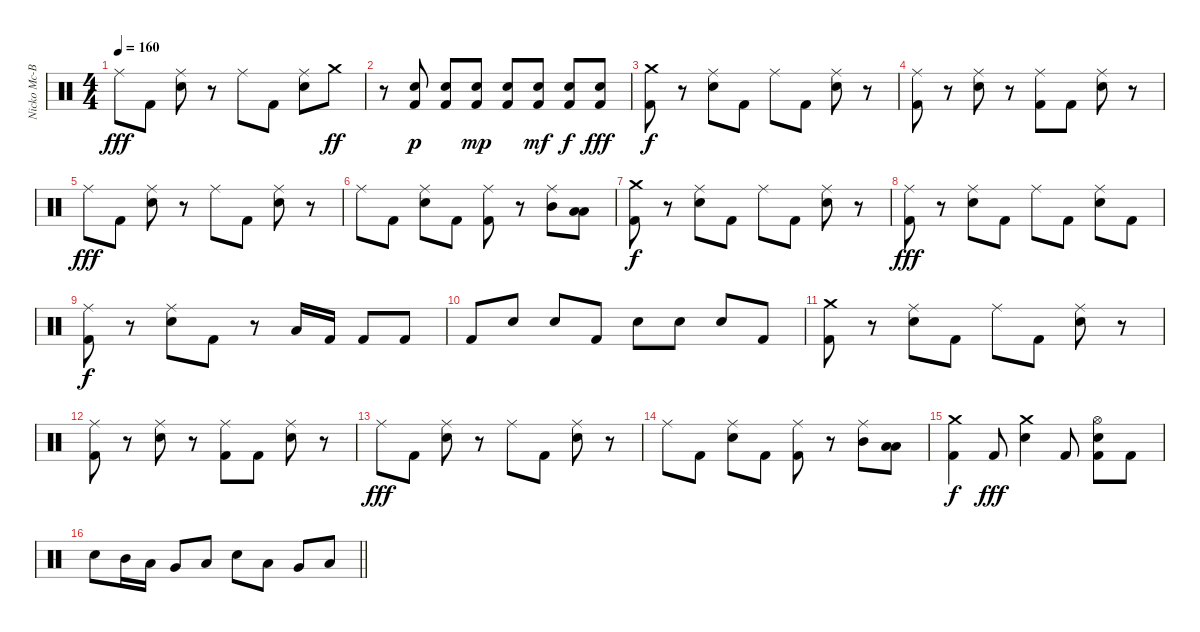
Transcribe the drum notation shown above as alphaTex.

\track ("Nicko Mc-Brain" "Nicko Mc-B") {instrument percussion}
\staff {score}
\articulation defaults
\ts (4 4)
\tempo 160
\clef neutral
\ks c "Ride (middle)".8{dy fff} "Kick (hit) 2".8
("Ride (middle)" "Snare (hit) 2").8 r.8 "Ride (middle)".8 "Kick (hit) 2".8 ("Ride (middle)" "Snare (hit) 2").8 "Crash medium (hit)".8{dy ff} |
r.8 ("Snare (hit) 2" "Kick (hit) 2").8{dy p} ("Snare (hit) 2" "Kick (hit) 2").8 ("Snare (hit) 2" "Kick (hit) 2").8{dy mp} ("Snare (hit) 2" "Kick (hit) 2").8 ("Snare (hit) 2" "Kick (hit) 2").8{dy mf} ("Snare (hit) 2" "Kick (hit) 2").8{dy f} ("Snare (hit) 2" "Kick (hit) 2").8{dy fff} |
("Crash medium (hit)" "Kick (hit) 2").8{dy f} r.8 ("Ride (middle)" "Snare (hit) 2").8 "Kick (hit) 2".8 "Ride (middle)".8 "Kick (hit) 2".8 ("Ride (middle)" "Snare (hit) 2").8 r.8 |
("Ride (middle)" "Kick (hit) 2").8 r.8 ("Ride (middle)" "Snare (hit) 2").8 r.8 ("Ride (middle)" "Kick (hit) 2").8 "Kick (hit) 2".8 ("Ride (middle)" "Snare (hit) 2").8 r.8 |
"Ride (middle)".8{dy fff} "Kick (hit) 2".8 ("Ride (middle)" "Snare (hit) 2").8 r.8 "Ride (middle)".8 "Kick (hit) 2".8 ("Ride (middle)" "Snare (hit) 2").8 r.8 |
"Ride (middle)".8 "Kick (hit) 2".8 ("Ride (middle)" "Snare (hit) 2").8 "Kick (hit) 2".8 ("Ride (middle)" "Kick (hit) 2").8 r.8 ("Ride (middle)" "Mid Tom (hit)").8 ("Low Floor Tom (hit)" "Low Floor Tom (hit)").8 |
("Crash medium (hit)" "Kick (hit) 2").8{dy f} r.8 ("Ride (middle)" "Snare (hit) 2").8 "Kick (hit) 2".8 "Ride (middle)".8 "Kick (hit) 2".8 ("Ride (middle)" "Snare (hit) 2").8 r.8 |
("Ride (middle)" "Kick (hit) 2").8{dy fff} r.8 ("Ride (middle)" "Snare (hit) 2").8 "Kick (hit) 2".8 "Ride (middle)".8 "Kick (hit) 2".8 ("Ride (middle)" "Snare (hit) 2").8 "Kick (hit) 2".8 |
("Ride (middle)" "Kick (hit) 2").8{dy f} r.8 ("Ride (middle)" "Snare (hit) 2").8 "Kick (hit) 2".8 r.8 "Low Floor Tom (hit)".16 "Kick (hit) 2".16 "Kick (hit) 2".8 "Kick (hit) 2".8 |
"Kick (hit) 2".8 "Snare (hit) 2".8 "Snare (hit) 2".8 "Kick (hit) 2".8 "Snare (hit) 2".8 "Snare (hit) 2".8 "Snare (hit) 2".8 "Kick (hit) 2".8 |
("Crash medium (hit)" "Kick (hit) 2").8 r.8 ("Ride (middle)" "Snare (hit) 2").8 "Kick (hit) 2".8 "Ride (middle)".8 "Kick (hit) 2".8 ("Ride (middle)" "Snare (hit) 2").8 r.8 |
("Ride (middle)" "Kick (hit) 2").8 r.8 ("Ride (middle)" "Snare (hit) 2").8 r.8 ("Ride (middle)" "Kick (hit) 2").8 "Kick (hit) 2".8 ("Ride (middle)" "Snare (hit) 2").8 r.8 |
"Ride (middle)".8{dy fff} "Kick (hit) 2".8 ("Ride (middle)" "Snare (hit) 2").8 r.8 "Ride (middle)".8 "Kick (hit) 2".8 ("Ride (middle)" "Snare (hit) 2").8 r.8 |
"Ride (middle)".8 "Kick (hit) 2".8 ("Ride (middle)" "Snare (hit) 2").8 "Kick (hit) 2".8 ("Ride (middle)" "Kick (hit) 2").8 r.8 ("Ride (middle)" "Mid Tom (hit)").8 ("Low Floor Tom (hit)" "Low Floor Tom (hit)").8 |
("Crash medium (hit)" "Kick (hit) 2").4{dy f} "Kick (hit) 2".8{dy fff} ("Crash medium (hit)" "Snare (hit) 2").4 "Kick (hit) 2".8 ("Hi-Hat (open)" "Snare (hit) 2" "Kick (hit) 2").8 "Kick (hit) 2".8 |
\barLineRight lightlight "Snare (hit) 2".8 "Mid Tom (hit)".16 "Low Tom (hit)".16 "Very Low Tom (hit)".8 "Low Floor Tom (hit)".8 "Snare (hit) 2".8 "Low Tom (hit)".8 "Very Low Tom (hit)".8 "Low Floor Tom (hit)".8
